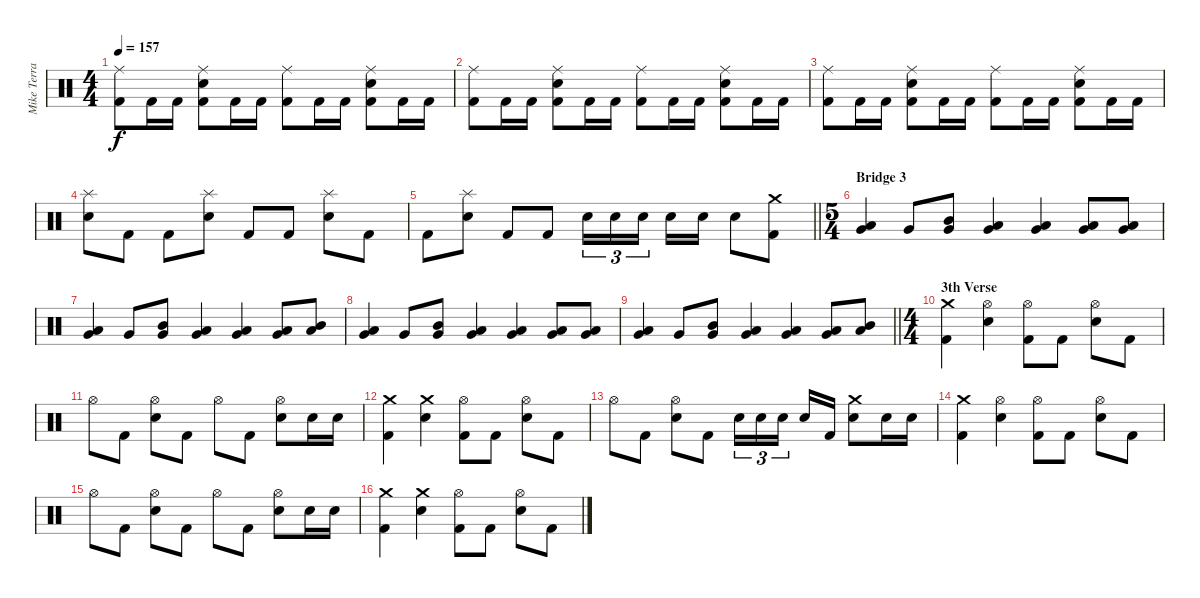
\track ("Mike Terrana" "Mike Terra") {instrument percussion}
\staff {score}
\articulation defaults
\ts (4 4)
\tempo 157
\clef neutral
\ks c
("Ride (middle)" "Kick (hit) 2").8{dy f} "Kick (hit) 2".16 "Kick (hit) 2".16 ("Ride (middle)" "Snare (hit) 2" "Kick (hit) 2").8 "Kick (hit) 2".16 "Kick (hit) 2".16 ("Ride (middle)" "Kick (hit) 2").8 "Kick (hit) 2".16 "Kick (hit) 2".16 ("Ride (middle)" "Snare (hit) 2" "Kick (hit) 2").8 "Kick (hit) 2".16 "Kick (hit) 2".16 |
("Ride (middle)" "Kick (hit) 2").8 "Kick (hit) 2".16 "Kick (hit) 2".16 ("Ride (middle)" "Snare (hit) 2" "Kick (hit) 2").8 "Kick (hit) 2".16 "Kick (hit) 2".16 ("Ride (middle)" "Kick (hit) 2").8 "Kick (hit) 2".16 "Kick (hit) 2".16 ("Ride (middle)" "Snare (hit) 2" "Kick (hit) 2").8 "Kick (hit) 2".16 "Kick (hit) 2".16 |
("Ride (middle)" "Kick (hit) 2").8 "Kick (hit) 2".16 "Kick (hit) 2".16 ("Ride (middle)" "Snare (hit) 2" "Kick (hit) 2").8 "Kick (hit) 2".16 "Kick (hit) 2".16 ("Ride (middle)" "Kick (hit) 2").8 "Kick (hit) 2".16 "Kick (hit) 2".16 ("Ride (middle)" "Snare (hit) 2" "Kick (hit) 2").8 "Kick (hit) 2".16 "Kick (hit) 2".16 |
("Splash (hit)" "Snare (hit) 2").8 "Kick (hit) 2".8 "Kick (hit) 2".8 ("Splash (hit)" "Snare (hit) 2").8 "Kick (hit) 2".8 "Kick (hit) 2".8 ("Splash (hit)" "Snare (hit) 2").8 "Kick (hit) 2".8 |
\barLineRight lightlight "Kick (hit) 2".8
("Splash (hit)" "Snare (hit) 2").8 "Kick (hit) 2".8 "Kick (hit) 2".8 "Snare (hit) 2".16{tu (3 2)} "Snare (hit) 2".16{tu (3 2)} "Snare (hit) 2".16{tu (3 2) beam splitsecondary} "Snare (hit) 2".16 "Snare (hit) 2".16 "Snare (hit) 2".8 ("Crash medium (hit)" "Kick (hit) 2").8 |
\ts (5 4)
\section ("" "Bridge 3")
("Low Tom (hit)" "Very Low Tom (hit)").4 "Very Low Tom (hit)".8 ("Mid Tom (hit)" "Very Low Tom (hit)").8 ("Low Tom (hit)" "Very Low Tom (hit)").4 ("Low Tom (hit)" "Very Low Tom (hit)").4 ("Low Tom (hit)" "Very Low Tom (hit)").8 ("Very Low Tom (hit)" "Low Tom (hit)").8 |
("Low Tom (hit)" "Very Low Tom (hit)").4 "Very Low Tom (hit)".8 ("Mid Tom (hit)" "Very Low Tom (hit)").8 ("Low Tom (hit)" "Very Low Tom (hit)").4 ("Low Tom (hit)" "Very Low Tom (hit)").4 ("Low Tom (hit)" "Very Low Tom (hit)").8 ("Mid Tom (hit)" "Low Tom (hit)").8 |
("Low Tom (hit)" "Very Low Tom (hit)").4 "Very Low Tom (hit)".8 ("Mid Tom (hit)" "Very Low Tom (hit)").8 ("Low Tom (hit)" "Very Low Tom (hit)").4 ("Low Tom (hit)" "Very Low Tom (hit)").4 ("Low Tom (hit)" "Very Low Tom (hit)").8 ("Very Low Tom (hit)" "Low Tom (hit)").8 |
\barLineRight lightlight
("Low Tom (hit)" "Very Low Tom (hit)").4 "Very Low Tom (hit)".8 ("Mid Tom (hit)" "Very Low Tom (hit)").8 ("Low Tom (hit)" "Very Low Tom (hit)").4 ("Low Tom (hit)" "Very Low Tom (hit)").4 ("Low Tom (hit)" "Very Low Tom (hit)").8 ("Mid Tom (hit)" "Low Tom (hit)").8 |
\ts (4 4)
\section ("" "3th Verse")
("Crash medium (hit)" "Kick (hit) 2").4 ("Hi-Hat (open)" "Snare (hit) 2").4 ("Hi-Hat (open)" "Kick (hit) 2").8 "Kick (hit) 2".8 ("Hi-Hat (open)" "Snare (hit) 2").8 "Kick (hit) 2".8 |
"Hi-Hat (open)".8 "Kick (hit) 2".8 ("Hi-Hat (open)" "Snare (hit) 2").8 "Kick (hit) 2".8 "Hi-Hat (open)".8 "Kick (hit) 2".8 ("Hi-Hat (open)" "Snare (hit) 2").8 "Snare (hit) 2".16 "Snare (hit) 2".16 |
("Crash medium (hit)" "Kick (hit) 2").4 ("Crash medium (hit)" "Snare (hit) 2").4 ("Hi-Hat (open)" "Kick (hit) 2").8 "Kick (hit) 2".8 ("Hi-Hat (open)" "Snare (hit) 2").8 "Kick (hit) 2".8 |
"Hi-Hat (open)".8 "Kick (hit) 2".8 ("Hi-Hat (open)" "Snare (hit) 2").8 "Kick (hit) 2".8 "Snare (hit) 2".16{tu (3 2)} "Snare (hit) 2".16{tu (3 2)} "Snare (hit) 2".16{tu (3 2) beam splitsecondary} "Snare (hit) 2".16 "Kick (hit) 2".16 ("Crash medium (hit)" "Snare (hit) 2").8 "Snare (hit) 2".16 "Snare (hit) 2".16 |
("Crash medium (hit)" "Kick (hit) 2").4 ("Hi-Hat (open)" "Snare (hit) 2").4 ("Hi-Hat (open)" "Kick (hit) 2").8 "Kick (hit) 2".8 ("Hi-Hat (open)" "Snare (hit) 2").8 "Kick (hit) 2".8 |
"Hi-Hat (open)".8 "Kick (hit) 2".8 ("Hi-Hat (open)" "Snare (hit) 2").8 "Kick (hit) 2".8 "Hi-Hat (open)".8 "Kick (hit) 2".8 ("Hi-Hat (open)" "Snare (hit) 2").8 "Snare (hit) 2".16 "Snare (hit) 2".16 |
("Crash medium (hit)" "Kick (hit) 2").4 ("Crash medium (hit)" "Snare (hit) 2").4 ("Hi-Hat (open)" "Kick (hit) 2").8 "Kick (hit) 2".8 ("Hi-Hat (open)" "Snare (hit) 2").8 "Kick (hit) 2".8
